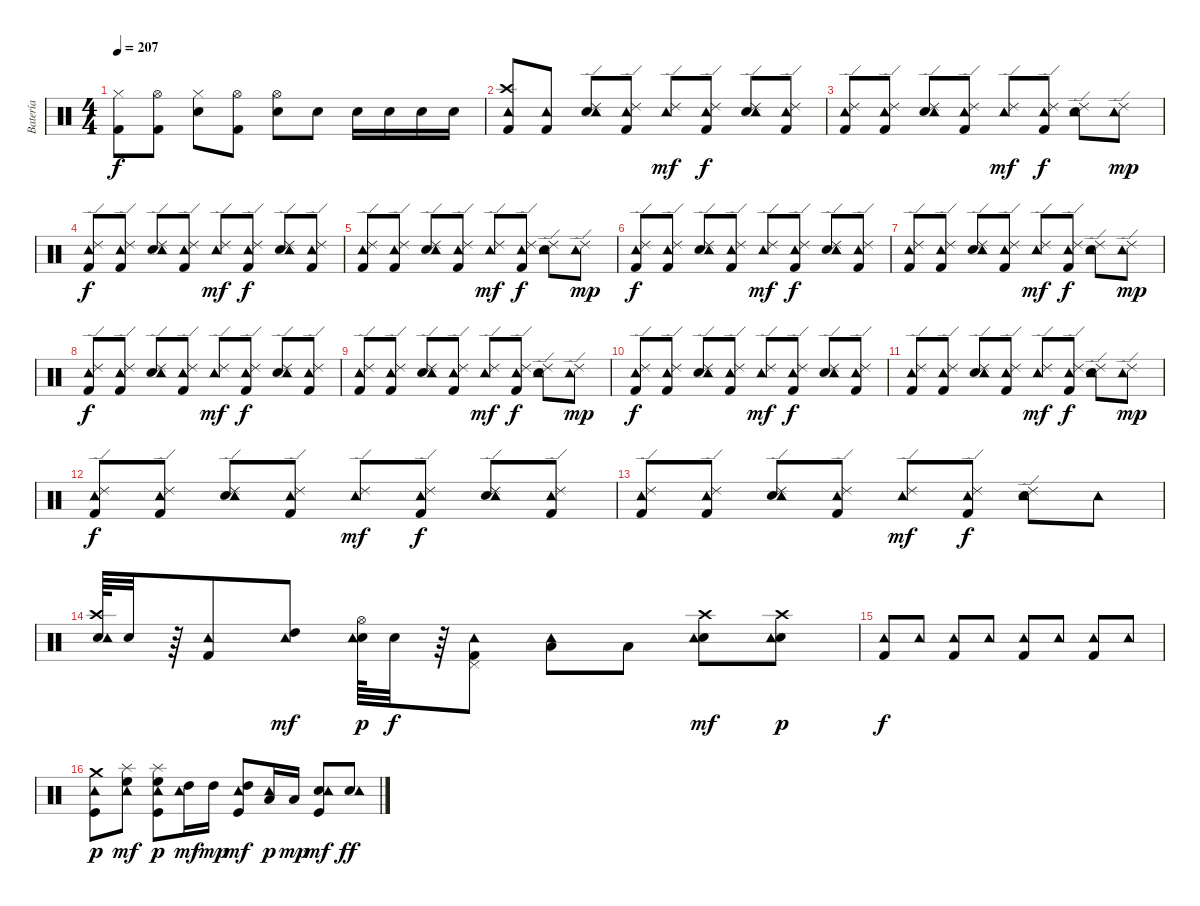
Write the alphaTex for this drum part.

\track ("Batería" "Batería") {instrument percussion}
\staff {score}
\articulation defaults
\ts (4 4)
\tempo 207
\clef neutral
\ks c
("Hi-Hat (closed)" "Kick (hit) 2").8{dy f} ("Hi-Hat (open)" "Kick (hit) 2").8 ("Snare (hit) 2" "Hi-Hat (closed)").8 ("Hi-Hat (open)" "Kick (hit) 2").8 ("Snare (hit) 2" "Hi-Hat (open)").8 "Snare (hit) 2".8 "Snare (hit) 2".16 "Snare (hit) 2".16 "Snare (hit) 2".16 "Snare (hit) 2".16 |
("Crash high (hit)" "Tambourine (hit)" "Kick (hit) 2").8 ("Tambourine (hit)" "Kick (hit) 2").8 ("Ride (edge) 2" "Snare (hit) 2" "Tambourine (hit)").8 ("Ride (edge) 2" "Tambourine (hit)" "Kick (hit) 2").8 ("Ride (edge) 2" "Tambourine (hit)").8{dy mf} ("Ride (edge) 2" "Tambourine (hit)" "Kick (hit) 2").8{dy f} ("Ride (edge) 2" "Snare (hit) 2" "Tambourine (hit)").8 ("Ride (edge) 2" "Tambourine (hit)" "Kick (hit) 2").8 |
("Ride (edge) 2" "Tambourine (hit)" "Kick (hit) 2").8 ("Ride (edge) 2" "Tambourine (hit)" "Kick (hit) 2").8 ("Ride (edge) 2" "Snare (hit) 2" "Tambourine (hit)").8 ("Ride (edge) 2" "Tambourine (hit)" "Kick (hit) 2").8 ("Ride (edge) 2" "Tambourine (hit)").8{dy mf} ("Ride (edge) 2" "Tambourine (hit)" "Kick (hit) 2").8{dy f} ("Ride (edge) 2" "Snare (hit) 2" "Tambourine (hit)").8 ("Ride (edge) 2" "Tambourine (hit)").8{dy mp} |
("Ride (edge) 2" "Tambourine (hit)" "Kick (hit) 2").8{dy f} ("Ride (edge) 2" "Tambourine (hit)" "Kick (hit) 2").8 ("Ride (edge) 2" "Snare (hit) 2" "Tambourine (hit)").8 ("Ride (edge) 2" "Tambourine (hit)" "Kick (hit) 2").8 ("Ride (edge) 2" "Tambourine (hit)").8{dy mf} ("Ride (edge) 2" "Tambourine (hit)" "Kick (hit) 2").8{dy f} ("Ride (edge) 2" "Snare (hit) 2" "Tambourine (hit)").8 ("Ride (edge) 2" "Tambourine (hit)" "Kick (hit) 2").8 |
("Ride (edge) 2" "Tambourine (hit)" "Kick (hit) 2").8 ("Ride (edge) 2" "Tambourine (hit)" "Kick (hit) 2").8 ("Ride (edge) 2" "Snare (hit) 2" "Tambourine (hit)").8 ("Ride (edge) 2" "Tambourine (hit)" "Kick (hit) 2").8 ("Ride (edge) 2" "Tambourine (hit)").8{dy mf} ("Ride (edge) 2" "Tambourine (hit)" "Kick (hit) 2").8{dy f} ("Ride (edge) 2" "Snare (hit) 2" "Tambourine (hit)").8 ("Ride (edge) 2" "Tambourine (hit)").8{dy mp} |
("Ride (edge) 2" "Tambourine (hit)" "Kick (hit) 2").8{dy f} ("Ride (edge) 2" "Tambourine (hit)" "Kick (hit) 2").8 ("Ride (edge) 2" "Snare (hit) 2" "Tambourine (hit)").8 ("Ride (edge) 2" "Tambourine (hit)" "Kick (hit) 2").8 ("Ride (edge) 2" "Tambourine (hit)").8{dy mf} ("Ride (edge) 2" "Tambourine (hit)" "Kick (hit) 2").8{dy f} ("Ride (edge) 2" "Snare (hit) 2" "Tambourine (hit)").8 ("Ride (edge) 2" "Tambourine (hit)" "Kick (hit) 2").8 |
("Ride (edge) 2" "Tambourine (hit)" "Kick (hit) 2").8 ("Ride (edge) 2" "Tambourine (hit)" "Kick (hit) 2").8 ("Ride (edge) 2" "Snare (hit) 2" "Tambourine (hit)").8 ("Ride (edge) 2" "Tambourine (hit)" "Kick (hit) 2").8 ("Ride (edge) 2" "Tambourine (hit)").8{dy mf} ("Ride (edge) 2" "Tambourine (hit)" "Kick (hit) 2").8{dy f} ("Ride (edge) 2" "Snare (hit) 2" "Tambourine (hit)").8 ("Ride (edge) 2" "Tambourine (hit)").8{dy mp} |
("Ride (edge) 2" "Tambourine (hit)" "Kick (hit) 2").8{dy f} ("Ride (edge) 2" "Tambourine (hit)" "Kick (hit) 2").8 ("Ride (edge) 2" "Snare (hit) 2" "Tambourine (hit)").8 ("Ride (edge) 2" "Tambourine (hit)" "Kick (hit) 2").8 ("Ride (edge) 2" "Tambourine (hit)").8{dy mf} ("Ride (edge) 2" "Tambourine (hit)" "Kick (hit) 2").8{dy f} ("Ride (edge) 2" "Snare (hit) 2" "Tambourine (hit)").8 ("Ride (edge) 2" "Tambourine (hit)" "Kick (hit) 2").8 |
("Ride (edge) 2" "Tambourine (hit)" "Kick (hit) 2").8 ("Ride (edge) 2" "Tambourine (hit)" "Kick (hit) 2").8 ("Ride (edge) 2" "Snare (hit) 2" "Tambourine (hit)").8 ("Ride (edge) 2" "Tambourine (hit)" "Kick (hit) 2").8 ("Ride (edge) 2" "Tambourine (hit)").8{dy mf} ("Ride (edge) 2" "Tambourine (hit)" "Kick (hit) 2").8{dy f} ("Ride (edge) 2" "Snare (hit) 2" "Tambourine (hit)").8 ("Ride (edge) 2" "Tambourine (hit)").8{dy mp} |
("Ride (edge) 2" "Tambourine (hit)" "Kick (hit) 2").8{dy f} ("Ride (edge) 2" "Tambourine (hit)" "Kick (hit) 2").8 ("Ride (edge) 2" "Snare (hit) 2" "Tambourine (hit)").8 ("Ride (edge) 2" "Tambourine (hit)" "Kick (hit) 2").8 ("Ride (edge) 2" "Tambourine (hit)").8{dy mf} ("Ride (edge) 2" "Tambourine (hit)" "Kick (hit) 2").8{dy f} ("Ride (edge) 2" "Snare (hit) 2" "Tambourine (hit)").8 ("Ride (edge) 2" "Tambourine (hit)" "Kick (hit) 2").8 |
("Ride (edge) 2" "Tambourine (hit)" "Kick (hit) 2").8 ("Ride (edge) 2" "Tambourine (hit)" "Kick (hit) 2").8 ("Ride (edge) 2" "Snare (hit) 2" "Tambourine (hit)").8 ("Ride (edge) 2" "Tambourine (hit)" "Kick (hit) 2").8 ("Ride (edge) 2" "Tambourine (hit)").8{dy mf} ("Ride (edge) 2" "Tambourine (hit)" "Kick (hit) 2").8{dy f} ("Ride (edge) 2" "Snare (hit) 2" "Tambourine (hit)").8 ("Ride (edge) 2" "Tambourine (hit)").8{dy mp} |
("Ride (edge) 2" "Tambourine (hit)" "Kick (hit) 2").8{dy f} ("Ride (edge) 2" "Tambourine (hit)" "Kick (hit) 2").8 ("Ride (edge) 2" "Snare (hit) 2" "Tambourine (hit)").8 ("Ride (edge) 2" "Tambourine (hit)" "Kick (hit) 2").8 ("Ride (edge) 2" "Tambourine (hit)").8{dy mf} ("Ride (edge) 2" "Tambourine (hit)" "Kick (hit) 2").8{dy f} ("Ride (edge) 2" "Snare (hit) 2" "Tambourine (hit)").8 ("Ride (edge) 2" "Tambourine (hit)" "Kick (hit) 2").8 |
("Ride (edge) 2" "Tambourine (hit)" "Kick (hit) 2").8 ("Ride (edge) 2" "Tambourine (hit)" "Kick (hit) 2").8 ("Ride (edge) 2" "Snare (hit) 2" "Tambourine (hit)").8 ("Ride (edge) 2" "Tambourine (hit)" "Kick (hit) 2").8 ("Ride (edge) 2" "Tambourine (hit)").8{dy mf} ("Ride (edge) 2" "Tambourine (hit)" "Kick (hit) 2").8{dy f} ("Ride (edge) 2" "Snare (hit) 2" "Tambourine (hit)").8 "Tambourine (hit)".8 |
("Crash high (hit)" "Snare (hit) 2" "Tambourine (hit)").64 "Snare (hit) 2".32 r.64 ("Tambourine (hit)" "Kick (hit) 2").8 ("High Tom (hit)" "Tambourine (hit)").8{dy mf} ("Snare (hit) 2" "Tambourine (hit)" "Hi-Hat (open)").64{dy p} "Snare (hit) 2".32{dy f} r.64 ("Tambourine (hit)" "Pedal Hi-Hat (hit)" "Kick (hit) 2").8 ("Low Tom (hit)" "Tambourine (hit)").8 "Low Tom (hit)".8 ("Crash high (hit)" "Snare (hit) 2" "Tambourine (hit)").8{dy mf} ("Crash high (hit)" "Snare (hit) 2" "Tambourine (hit)").8{dy p} |
("Tambourine (hit)" "Kick (hit) 2").8{dy f} "Tambourine (hit)".8 ("Tambourine (hit)" "Kick (hit) 2").8 "Tambourine (hit)".8 ("Tambourine (hit)" "Kick (hit) 2").8 "Tambourine (hit)".8 ("Tambourine (hit)" "Kick (hit) 2").8 "Tambourine (hit)".8 |
("Kick (hit)" "Crash medium (hit)" "Tambourine (hit)").8{dy p} ("High Floor Tom (hit)" "Splash (hit)" "Tambourine (hit)").8{dy mf} ("High Floor Tom (hit)" "Kick (hit)" "Splash (hit)" "Tambourine (hit)").8{dy p} ("High Tom (hit)" "Tambourine (hit)").16{dy mf} "High Tom (hit)".16{dy mp} ("High Tom (hit)" "Kick (hit)" "Tambourine (hit)").8{dy mf} ("Low Tom (hit)" "Tambourine (hit)").16{dy p} "Low Tom (hit)".16{dy mp} ("Snare (hit) 2" "Kick (hit)" "Tambourine (hit)").8{dy mf} ("Snare (hit) 2" "Tambourine (hit)").8{dy ff}
